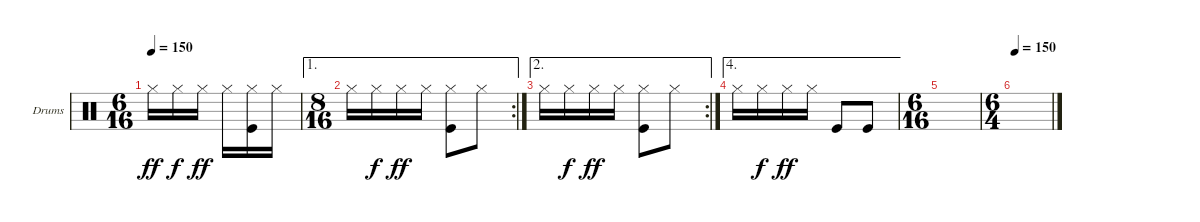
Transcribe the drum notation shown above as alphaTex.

\bracketExtendMode groupsimilarinstruments
\firstSystemTrackNameOrientation horizontal
\otherSystemsTrackNameOrientation horizontal
\track ("Сеня(Drumkit)" "Drums") {instrument percussion}
\staff {score}
\articulation defaults
\ts (6 16)
\tempo 150
\clef neutral
\ks c "Hi-Hat (closed)".16{dy ff} "Hi-Hat (closed)".16{dy f} "Hi-Hat (closed)".16{dy ff} "Hi-Hat (closed)".16
("Hi-Hat (closed)" "Kick (hit)").16 "Hi-Hat (closed)".16 |
\ae 1
\rc 2
\ts (8 16)
"Hi-Hat (closed)".16 "Hi-Hat (closed)".16{dy f} "Hi-Hat (closed)".16{dy ff} "Hi-Hat (closed)".16 ("Hi-Hat (closed)" "Kick (hit)").8 "Hi-Hat (closed)".8 |
\ae 2
\rc 2 "Hi-Hat (closed)".16 "Hi-Hat (closed)".16{dy f} "Hi-Hat (closed)".16{dy ff} "Hi-Hat (closed)".16
("Hi-Hat (closed)" "Kick (hit)").8 "Hi-Hat (closed)".8 |
\ae 4 "Hi-Hat (closed)".16 "Hi-Hat (closed)".16{dy f} "Hi-Hat (closed)".16{dy ff} "Hi-Hat (closed)".16 "Kick (hit)".8 "Kick (hit)".8
|
\ts (6 16)
|
\ts (6 4)
\tempo 150
